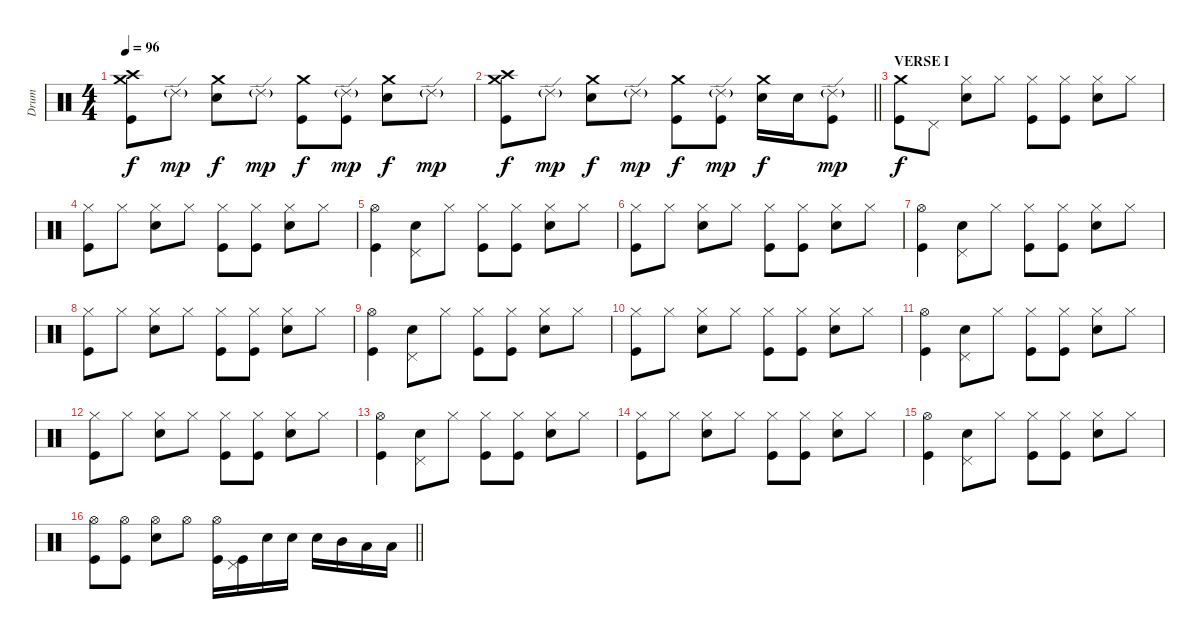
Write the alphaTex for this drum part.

\track ("Drum" "Drum") {instrument percussion}
\staff {score}
\articulation defaults
\ts (4 4)
\tempo 96
\clef neutral
\ks c
("Crash high (hit)" "Crash medium (hit)" "Kick (hit)").8{dy f} "Ride (edge) 2"{g}.8{dy mp} ("Crash medium (hit)" "Electric Snare (hit)").8{dy f} "Ride (edge) 2"{g}.8{dy mp} ("Crash medium (hit)" "Kick (hit)").8{dy f} ("Ride (edge) 2"{g} "Kick (hit)").8{dy mp} ("Crash medium (hit)" "Electric Snare (hit)").8{dy f} "Ride (edge) 2"{g}.8{dy mp} |
\barLineRight lightlight
("Crash high (hit)" "Crash medium (hit)" "Kick (hit)").8{dy f} "Ride (edge) 2"{g}.8{dy mp} ("Crash medium (hit)" "Electric Snare (hit)").8{dy f} "Ride (edge) 2"{g}.8{dy mp} ("Crash medium (hit)" "Kick (hit)").8{dy f} ("Ride (edge) 2"{g} "Kick (hit)").8{dy mp} ("Crash medium (hit)" "Electric Snare (hit)").16{dy f} "Electric Snare (hit)".16 ("Ride (edge) 2"{g} "Kick (hit)").8{dy mp} |
\section ("" "VERSE I")
("Crash medium (hit)" "Kick (hit)").8{dy f} "Pedal Hi-Hat (hit)".8 ("Hi-Hat (closed)" "Electric Snare (hit)").8 "Hi-Hat (closed)".8 ("Hi-Hat (closed)" "Kick (hit)").8 ("Hi-Hat (closed)" "Kick (hit)").8 ("Hi-Hat (closed)" "Electric Snare (hit)").8 "Hi-Hat (closed)".8 |
("Hi-Hat (closed)" "Kick (hit)").8 "Hi-Hat (closed)".8 ("Hi-Hat (closed)" "Electric Snare (hit)").8 "Hi-Hat (closed)".8 ("Hi-Hat (closed)" "Kick (hit)").8 ("Hi-Hat (closed)" "Kick (hit)").8 ("Hi-Hat (closed)" "Electric Snare (hit)").8 "Hi-Hat (closed)".8 |
("Hi-Hat (open)" "Kick (hit)").4 ("Pedal Hi-Hat (hit)" "Electric Snare (hit)").8 "Hi-Hat (closed)".8 ("Hi-Hat (closed)" "Kick (hit)").8 ("Hi-Hat (closed)" "Kick (hit)").8 ("Hi-Hat (closed)" "Electric Snare (hit)").8 "Hi-Hat (closed)".8 |
("Hi-Hat (closed)" "Kick (hit)").8 "Hi-Hat (closed)".8 ("Hi-Hat (closed)" "Electric Snare (hit)").8 "Hi-Hat (closed)".8 ("Hi-Hat (closed)" "Kick (hit)").8 ("Hi-Hat (closed)" "Kick (hit)").8 ("Hi-Hat (closed)" "Electric Snare (hit)").8 "Hi-Hat (closed)".8 |
("Hi-Hat (open)" "Kick (hit)").4 ("Pedal Hi-Hat (hit)" "Electric Snare (hit)").8 "Hi-Hat (closed)".8 ("Hi-Hat (closed)" "Kick (hit)").8 ("Hi-Hat (closed)" "Kick (hit)").8 ("Hi-Hat (closed)" "Electric Snare (hit)").8 "Hi-Hat (closed)".8 |
("Hi-Hat (closed)" "Kick (hit)").8 "Hi-Hat (closed)".8 ("Hi-Hat (closed)" "Electric Snare (hit)").8 "Hi-Hat (closed)".8 ("Hi-Hat (closed)" "Kick (hit)").8 ("Hi-Hat (closed)" "Kick (hit)").8 ("Hi-Hat (closed)" "Electric Snare (hit)").8 "Hi-Hat (closed)".8 |
("Hi-Hat (open)" "Kick (hit)").4 ("Pedal Hi-Hat (hit)" "Electric Snare (hit)").8 "Hi-Hat (closed)".8 ("Hi-Hat (closed)" "Kick (hit)").8 ("Hi-Hat (closed)" "Kick (hit)").8 ("Hi-Hat (closed)" "Electric Snare (hit)").8 "Hi-Hat (closed)".8 |
("Hi-Hat (closed)" "Kick (hit)").8 "Hi-Hat (closed)".8 ("Hi-Hat (closed)" "Electric Snare (hit)").8 "Hi-Hat (closed)".8 ("Hi-Hat (closed)" "Kick (hit)").8 ("Hi-Hat (closed)" "Kick (hit)").8 ("Hi-Hat (closed)" "Electric Snare (hit)").8 "Hi-Hat (closed)".8 |
("Hi-Hat (open)" "Kick (hit)").4 ("Pedal Hi-Hat (hit)" "Electric Snare (hit)").8 "Hi-Hat (closed)".8 ("Hi-Hat (closed)" "Kick (hit)").8 ("Hi-Hat (closed)" "Kick (hit)").8 ("Hi-Hat (closed)" "Electric Snare (hit)").8 "Hi-Hat (closed)".8 |
("Hi-Hat (closed)" "Kick (hit)").8 "Hi-Hat (closed)".8 ("Hi-Hat (closed)" "Electric Snare (hit)").8 "Hi-Hat (closed)".8 ("Hi-Hat (closed)" "Kick (hit)").8 ("Hi-Hat (closed)" "Kick (hit)").8 ("Hi-Hat (closed)" "Electric Snare (hit)").8 "Hi-Hat (closed)".8 |
("Hi-Hat (open)" "Kick (hit)").4 ("Pedal Hi-Hat (hit)" "Electric Snare (hit)").8 "Hi-Hat (closed)".8 ("Hi-Hat (closed)" "Kick (hit)").8 ("Hi-Hat (closed)" "Kick (hit)").8 ("Hi-Hat (closed)" "Electric Snare (hit)").8 "Hi-Hat (closed)".8 |
("Hi-Hat (closed)" "Kick (hit)").8 "Hi-Hat (closed)".8 ("Hi-Hat (closed)" "Electric Snare (hit)").8 "Hi-Hat (closed)".8 ("Hi-Hat (closed)" "Kick (hit)").8 ("Hi-Hat (closed)" "Kick (hit)").8 ("Hi-Hat (closed)" "Electric Snare (hit)").8 "Hi-Hat (closed)".8 |
("Hi-Hat (open)" "Kick (hit)").4 ("Pedal Hi-Hat (hit)" "Electric Snare (hit)").8 "Hi-Hat (closed)".8 ("Hi-Hat (closed)" "Kick (hit)").8 ("Hi-Hat (closed)" "Kick (hit)").8 ("Hi-Hat (closed)" "Electric Snare (hit)").8 "Hi-Hat (closed)".8 |
\barLineRight lightlight
("Hi-Hat (open)" "Kick (hit)").8 ("Hi-Hat (open)" "Kick (hit)").8 ("Hi-Hat (open)" "Electric Snare (hit)").8 "Hi-Hat (open)".8 ("Hi-Hat (open)" "Kick (hit)").16 ("Pedal Hi-Hat (hit)" "Kick (hit)").16 "Electric Snare (hit)".16 "Electric Snare (hit)".16 "Electric Snare (hit)".16 "Mid Tom (hit)".16 "Low Floor Tom (hit)".16 "Low Floor Tom (hit)".16
